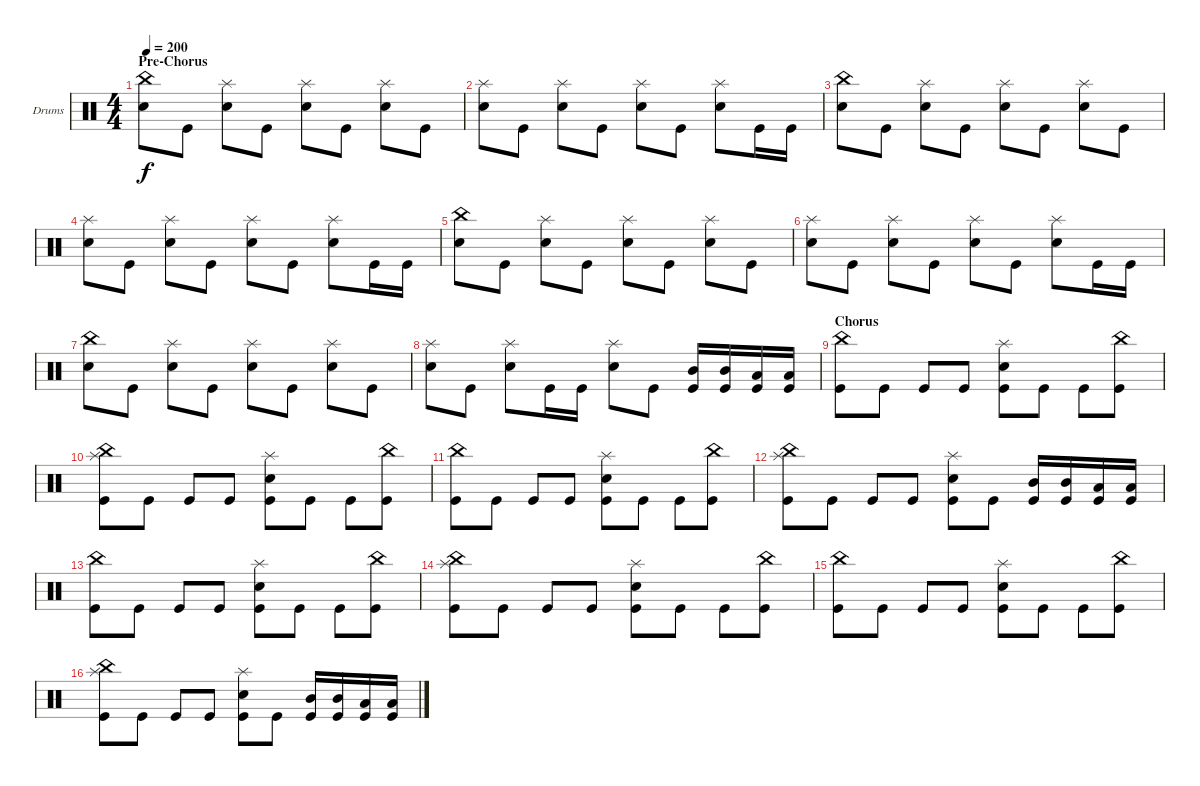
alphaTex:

\defaultSystemsLayout 4
\bracketExtendMode groupsimilarinstruments
\firstSystemTrackNameOrientation horizontal
\otherSystemsTrackNameOrientation horizontal
\track ("Drumkit" "Drums") {instrument percussion}
\staff {score}
\articulation defaults
\ts (4 4)
\section ("" "Pre-Chorus")
\tempo 200
\clef neutral
\ks c
("China (hit)" "Snare (hit) 2").8{dy f} "Kick (hit)".8 ("Splash (hit)" "Snare (hit) 2").8 "Kick (hit)".8 ("Splash (hit)" "Snare (hit) 2").8 "Kick (hit)".8 ("Splash (hit)" "Snare (hit) 2").8 "Kick (hit)".8 |
("Snare (hit) 2" "Splash (hit)").8 "Kick (hit)".8 ("Splash (hit)" "Snare (hit) 2").8 "Kick (hit)".8 ("Splash (hit)" "Snare (hit) 2").8 "Kick (hit)".8 ("Splash (hit)" "Snare (hit) 2").8 "Kick (hit)".16 "Kick (hit)".16 |
("China (hit)" "Snare (hit) 2").8 "Kick (hit)".8 ("Splash (hit)" "Snare (hit) 2").8 "Kick (hit)".8 ("Splash (hit)" "Snare (hit) 2").8 "Kick (hit)".8 ("Splash (hit)" "Snare (hit) 2").8 "Kick (hit)".8 |
("Snare (hit) 2" "Splash (hit)").8 "Kick (hit)".8 ("Splash (hit)" "Snare (hit) 2").8 "Kick (hit)".8 ("Splash (hit)" "Snare (hit) 2").8 "Kick (hit)".8 ("Splash (hit)" "Snare (hit) 2").8 "Kick (hit)".16 "Kick (hit)".16 |
("China (hit)" "Snare (hit) 2").8 "Kick (hit)".8 ("Splash (hit)" "Snare (hit) 2").8 "Kick (hit)".8 ("Splash (hit)" "Snare (hit) 2").8 "Kick (hit)".8 ("Splash (hit)" "Snare (hit) 2").8 "Kick (hit)".8 |
("Snare (hit) 2" "Splash (hit)").8 "Kick (hit)".8 ("Splash (hit)" "Snare (hit) 2").8 "Kick (hit)".8 ("Splash (hit)" "Snare (hit) 2").8 "Kick (hit)".8 ("Splash (hit)" "Snare (hit) 2").8 "Kick (hit)".16 "Kick (hit)".16 |
("China (hit)" "Snare (hit) 2").8 "Kick (hit)".8 ("Splash (hit)" "Snare (hit) 2").8 "Kick (hit)".8 ("Splash (hit)" "Snare (hit) 2").8 "Kick (hit)".8 ("Splash (hit)" "Snare (hit) 2").8 "Kick (hit)".8 |
("Snare (hit) 2" "Splash (hit)").8 "Kick (hit)".8 ("Splash (hit)" "Snare (hit) 2").8 "Kick (hit)".16 "Kick (hit)".16 ("Splash (hit)" "Snare (hit) 2").8 "Kick (hit)".8 ("Mid Tom (hit)" "Kick (hit)").16 ("Mid Tom (hit)" "Kick (hit)").16 ("Kick (hit)" "Low Tom (hit)").16 ("Kick (hit)" "Low Tom (hit)").16 |
\section ("" "Chorus")
("Kick (hit)" "China (hit)").8 "Kick (hit)".8 "Kick (hit)".8 "Kick (hit)".8 ("Kick (hit)" "Splash (hit)" "Snare (hit) 2").8 "Kick (hit)".8 "Kick (hit)".8 ("Kick (hit)" "China (hit)").8 |
("Kick (hit)" "Splash (hit)" "China (hit)").8 "Kick (hit)".8 "Kick (hit)".8 "Kick (hit)".8 ("Kick (hit)" "Splash (hit)" "Snare (hit) 2").8 "Kick (hit)".8 "Kick (hit)".8 ("Kick (hit)" "China (hit)").8 |
("Kick (hit)" "China (hit)").8 "Kick (hit)".8 "Kick (hit)".8 "Kick (hit)".8 ("Kick (hit)" "Splash (hit)" "Snare (hit) 2").8 "Kick (hit)".8 "Kick (hit)".8 ("Kick (hit)" "China (hit)").8 |
("Kick (hit)" "Splash (hit)" "China (hit)").8 "Kick (hit)".8 "Kick (hit)".8 "Kick (hit)".8 ("Kick (hit)" "Splash (hit)" "Snare (hit) 2").8 "Kick (hit)".8 ("Kick (hit)" "Mid Tom (hit)").16 ("Kick (hit)" "Mid Tom (hit)").16 ("Low Tom (hit)" "Kick (hit)").16 ("Low Tom (hit)" "Kick (hit)").16 |
("Kick (hit)" "China (hit)").8 "Kick (hit)".8 "Kick (hit)".8 "Kick (hit)".8 ("Kick (hit)" "Splash (hit)" "Snare (hit) 2").8 "Kick (hit)".8 "Kick (hit)".8 ("Kick (hit)" "China (hit)").8 |
("Kick (hit)" "Splash (hit)" "China (hit)").8 "Kick (hit)".8 "Kick (hit)".8 "Kick (hit)".8 ("Kick (hit)" "Splash (hit)" "Snare (hit) 2").8 "Kick (hit)".8 "Kick (hit)".8 ("Kick (hit)" "China (hit)").8 |
("Kick (hit)" "China (hit)").8 "Kick (hit)".8 "Kick (hit)".8 "Kick (hit)".8 ("Kick (hit)" "Splash (hit)" "Snare (hit) 2").8 "Kick (hit)".8 "Kick (hit)".8 ("Kick (hit)" "China (hit)").8 |
("Kick (hit)" "Splash (hit)" "China (hit)").8 "Kick (hit)".8 "Kick (hit)".8 "Kick (hit)".8 ("Kick (hit)" "Splash (hit)" "Snare (hit) 2").8 "Kick (hit)".8 ("Kick (hit)" "Mid Tom (hit)").16 ("Kick (hit)" "Mid Tom (hit)").16 ("Low Tom (hit)" "Kick (hit)").16 ("Low Tom (hit)" "Kick (hit)").16
